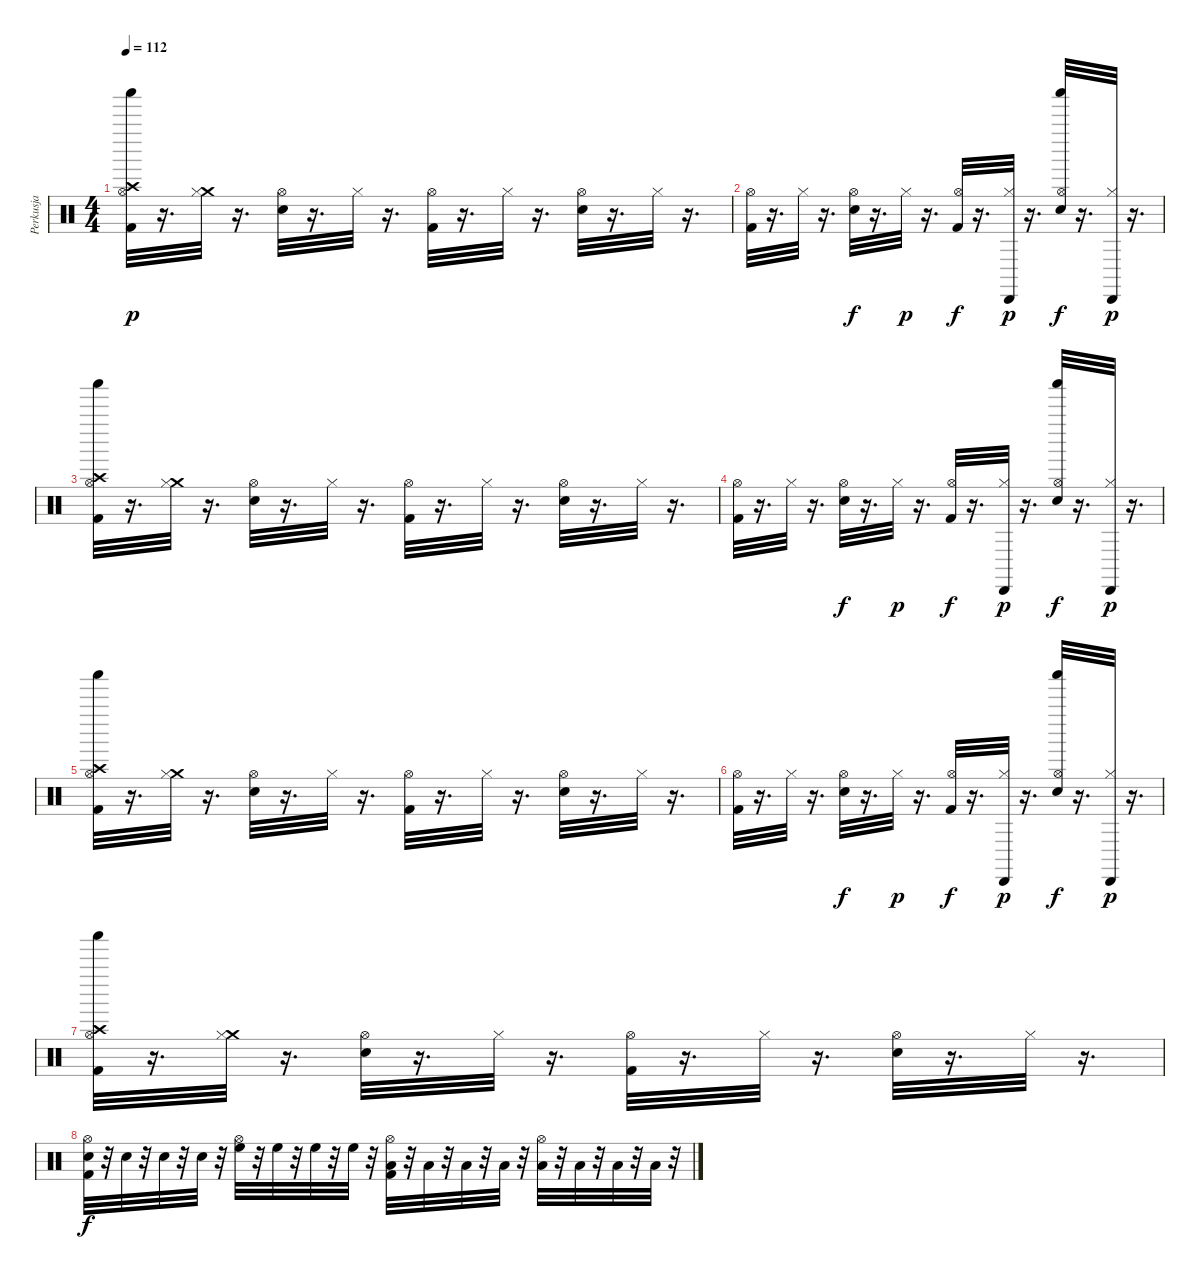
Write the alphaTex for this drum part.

\track ("Perkusja" "Perkusja") {instrument percussion}
\staff {score}
\articulation defaults
\ts (4 4)
\tempo 112
\clef neutral
\ks c
("Crash high (hit)" "Hi-Hat (open)" "Shaker (hit)" "Kick (hit) 2").32{dy p} r.16{d} ("Crash medium (hit)" "Hi-Hat (closed)").32 r.16{d} ("Hi-Hat (open)" "Snare (hit) 2").32 r.16{d} "Hi-Hat (closed)".32 r.16{d} ("Hi-Hat (open)" "Kick (hit) 2").32 r.16{d} "Hi-Hat (closed)".32 r.16{d} ("Hi-Hat (open)" "Snare (hit) 2").32 r.16{d} "Hi-Hat (closed)".32 r.16{d} |
("Hi-Hat (open)" "Kick (hit) 2").32 r.16{d} "Hi-Hat (closed)".32 r.16{d} ("Hi-Hat (open)" "Snare (hit) 2").32{dy f} r.16{d} "Hi-Hat (closed)".32{dy p} r.16{d} ("Hi-Hat (open)" "Kick (hit) 2").32{dy f} r.16{d} ("Hi-Hat (closed)" "Cabasa (hit)").32{dy p} r.16{d} ("Shaker (hit)" "Hi-Hat (open)" "Snare (hit) 2").32{dy f} r.16{d} ("Hi-Hat (closed)" "Cabasa (hit)").32{dy p} r.16{d} |
("Crash high (hit)" "Hi-Hat (open)" "Shaker (hit)" "Kick (hit) 2").32 r.16{d} ("Crash medium (hit)" "Hi-Hat (closed)").32 r.16{d} ("Hi-Hat (open)" "Snare (hit) 2").32 r.16{d} "Hi-Hat (closed)".32 r.16{d} ("Hi-Hat (open)" "Kick (hit) 2").32 r.16{d} "Hi-Hat (closed)".32 r.16{d} ("Hi-Hat (open)" "Snare (hit) 2").32 r.16{d} "Hi-Hat (closed)".32 r.16{d} |
("Hi-Hat (open)" "Kick (hit) 2").32 r.16{d} "Hi-Hat (closed)".32 r.16{d} ("Hi-Hat (open)" "Snare (hit) 2").32{dy f} r.16{d} "Hi-Hat (closed)".32{dy p} r.16{d} ("Hi-Hat (open)" "Kick (hit) 2").32{dy f} r.16{d} ("Hi-Hat (closed)" "Cabasa (hit)").32{dy p} r.16{d} ("Shaker (hit)" "Hi-Hat (open)" "Snare (hit) 2").32{dy f} r.16{d} ("Hi-Hat (closed)" "Cabasa (hit)").32{dy p} r.16{d} |
("Crash high (hit)" "Hi-Hat (open)" "Shaker (hit)" "Kick (hit) 2").32 r.16{d} ("Crash medium (hit)" "Hi-Hat (closed)").32 r.16{d} ("Hi-Hat (open)" "Snare (hit) 2").32 r.16{d} "Hi-Hat (closed)".32 r.16{d} ("Hi-Hat (open)" "Kick (hit) 2").32 r.16{d} "Hi-Hat (closed)".32 r.16{d} ("Hi-Hat (open)" "Snare (hit) 2").32 r.16{d} "Hi-Hat (closed)".32 r.16{d} |
("Hi-Hat (open)" "Kick (hit) 2").32 r.16{d} "Hi-Hat (closed)".32 r.16{d} ("Hi-Hat (open)" "Snare (hit) 2").32{dy f} r.16{d} "Hi-Hat (closed)".32{dy p} r.16{d} ("Hi-Hat (open)" "Kick (hit) 2").32{dy f} r.16{d} ("Hi-Hat (closed)" "Cabasa (hit)").32{dy p} r.16{d} ("Shaker (hit)" "Hi-Hat (open)" "Snare (hit) 2").32{dy f} r.16{d} ("Hi-Hat (closed)" "Cabasa (hit)").32{dy p} r.16{d} |
("Crash high (hit)" "Hi-Hat (open)" "Shaker (hit)" "Kick (hit) 2").32 r.16{d} ("Crash medium (hit)" "Hi-Hat (closed)").32 r.16{d} ("Hi-Hat (open)" "Snare (hit) 2").32 r.16{d} "Hi-Hat (closed)".32 r.16{d} ("Hi-Hat (open)" "Kick (hit) 2").32 r.16{d} "Hi-Hat (closed)".32 r.16{d} ("Hi-Hat (open)" "Snare (hit) 2").32 r.16{d} "Hi-Hat (closed)".32 r.16{d} |
("Hi-Hat (open)" "Snare (hit) 2" "Kick (hit) 2").32{dy f} r.32 "Snare (hit) 2".32 r.32 "Snare (hit) 2".32 r.32 "Snare (hit) 2".32 r.32 ("High Floor Tom (hit)" "Hi-Hat (open)").32 r.32 "High Floor Tom (hit)".32 r.32 "High Floor Tom (hit)".32 r.32 "High Floor Tom (hit)".32 r.32 ("Low Tom (hit)" "Hi-Hat (open)" "Kick (hit) 2").32 r.32 "Low Tom (hit)".32 r.32 "Low Tom (hit)".32 r.32 "Low Tom (hit)".32 r.32 ("Hi-Hat (open)" "Low Floor Tom (hit)").32 r.32 "Low Floor Tom (hit)".32 r.32 "Low Floor Tom (hit)".32 r.32 "Low Floor Tom (hit)".32 r.32
